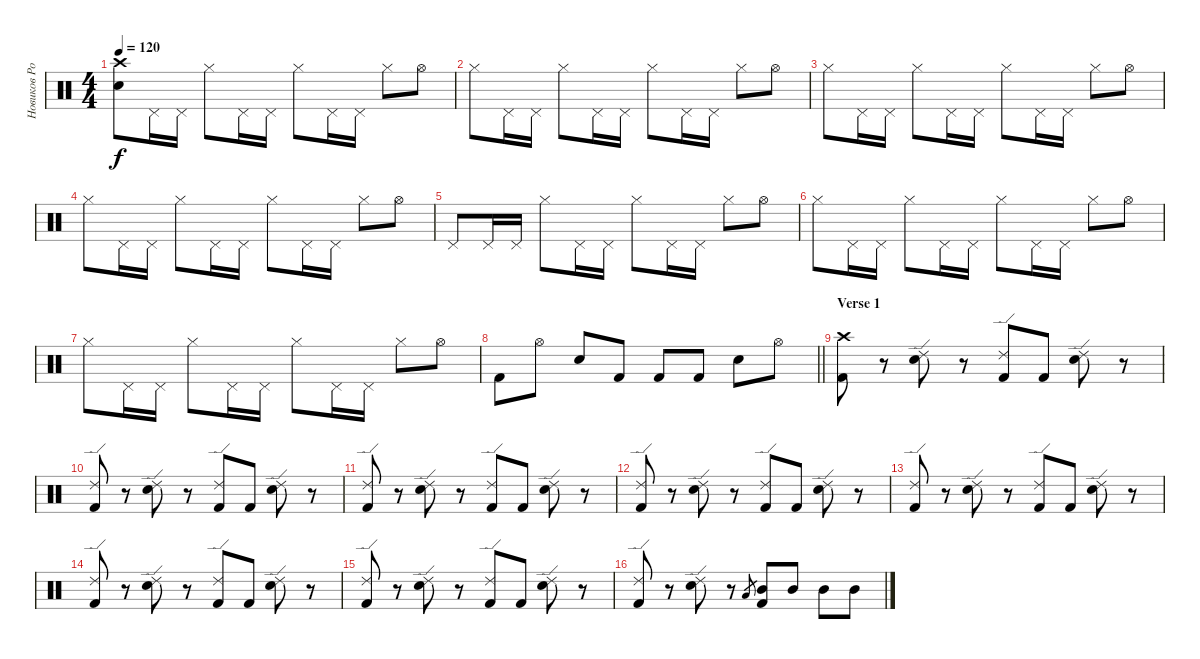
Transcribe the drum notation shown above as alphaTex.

\track ("Новиков Роман  ( Ударные )" "Новиков Ро") {instrument percussion}
\staff {score}
\articulation defaults
\ts (4 4)
\tempo 120
\clef neutral
\ks c
("Snare (hit) 2" "Crash high (hit)").8{dy f} "Pedal Hi-Hat (hit)".16 "Pedal Hi-Hat (hit)".16 "Hi-Hat (closed)".8 "Pedal Hi-Hat (hit)".16 "Pedal Hi-Hat (hit)".16 "Hi-Hat (closed)".8 "Pedal Hi-Hat (hit)".16 "Pedal Hi-Hat (hit)".16 "Hi-Hat (closed)".8 "Hi-Hat (open)".8 |
"Hi-Hat (closed)".8 "Pedal Hi-Hat (hit)".16 "Pedal Hi-Hat (hit)".16 "Hi-Hat (closed)".8 "Pedal Hi-Hat (hit)".16 "Pedal Hi-Hat (hit)".16 "Hi-Hat (closed)".8 "Pedal Hi-Hat (hit)".16 "Pedal Hi-Hat (hit)".16 "Hi-Hat (closed)".8 "Hi-Hat (open)".8 |
"Hi-Hat (closed)".8 "Pedal Hi-Hat (hit)".16 "Pedal Hi-Hat (hit)".16 "Hi-Hat (closed)".8 "Pedal Hi-Hat (hit)".16 "Pedal Hi-Hat (hit)".16 "Hi-Hat (closed)".8 "Pedal Hi-Hat (hit)".16 "Pedal Hi-Hat (hit)".16 "Hi-Hat (closed)".8 "Hi-Hat (open)".8 |
"Hi-Hat (closed)".8 "Pedal Hi-Hat (hit)".16 "Pedal Hi-Hat (hit)".16 "Hi-Hat (closed)".8 "Pedal Hi-Hat (hit)".16 "Pedal Hi-Hat (hit)".16 "Hi-Hat (closed)".8 "Pedal Hi-Hat (hit)".16 "Pedal Hi-Hat (hit)".16 "Hi-Hat (closed)".8 "Hi-Hat (open)".8 |
"Pedal Hi-Hat (hit)".8 "Pedal Hi-Hat (hit)".16 "Pedal Hi-Hat (hit)".16 "Hi-Hat (closed)".8 "Pedal Hi-Hat (hit)".16 "Pedal Hi-Hat (hit)".16 "Hi-Hat (closed)".8 "Pedal Hi-Hat (hit)".16 "Pedal Hi-Hat (hit)".16 "Hi-Hat (closed)".8 "Hi-Hat (open)".8 |
"Hi-Hat (closed)".8 "Pedal Hi-Hat (hit)".16 "Pedal Hi-Hat (hit)".16 "Hi-Hat (closed)".8 "Pedal Hi-Hat (hit)".16 "Pedal Hi-Hat (hit)".16 "Hi-Hat (closed)".8 "Pedal Hi-Hat (hit)".16 "Pedal Hi-Hat (hit)".16 "Hi-Hat (closed)".8 "Hi-Hat (open)".8 |
"Hi-Hat (closed)".8 "Pedal Hi-Hat (hit)".16 "Pedal Hi-Hat (hit)".16 "Hi-Hat (closed)".8 "Pedal Hi-Hat (hit)".16 "Pedal Hi-Hat (hit)".16 "Hi-Hat (closed)".8 "Pedal Hi-Hat (hit)".16 "Pedal Hi-Hat (hit)".16 "Hi-Hat (closed)".8 "Hi-Hat (open)".8 |
\barLineRight lightlight "Kick (hit) 2".8 "Hi-Hat (open)".8 "Snare (hit) 2".8 "Kick (hit) 2".8 "Kick (hit) 2".8 "Kick (hit) 2".8 "Electric Snare (hit)".8 "Hi-Hat (open)".8
|
\section ("" "Verse 1")
("Crash high (hit)" "Kick (hit) 2").8 r.8 ("Ride (edge) 2" "Electric Snare (hit)").8 r.8 ("Ride (edge) 2" "Kick (hit) 2").8 "Kick (hit) 2".8 ("Ride (edge) 2" "Electric Snare (hit)").8 r.8 |
("Ride (edge) 2" "Kick (hit) 2").8 r.8 ("Ride (edge) 2" "Electric Snare (hit)").8 r.8 ("Ride (edge) 2" "Kick (hit) 2").8 "Kick (hit) 2".8 ("Ride (edge) 2" "Electric Snare (hit)").8 r.8 |
("Ride (edge) 2" "Kick (hit) 2").8 r.8 ("Ride (edge) 2" "Electric Snare (hit)").8 r.8 ("Ride (edge) 2" "Kick (hit) 2").8 "Kick (hit) 2".8 ("Ride (edge) 2" "Electric Snare (hit)").8 r.8 |
("Ride (edge) 2" "Kick (hit) 2").8 r.8 ("Ride (edge) 2" "Electric Snare (hit)").8 r.8 ("Ride (edge) 2" "Kick (hit) 2").8 "Kick (hit) 2".8 ("Ride (edge) 2" "Electric Snare (hit)").8 r.8 |
("Ride (edge) 2" "Kick (hit) 2").8 r.8 ("Ride (edge) 2" "Electric Snare (hit)").8 r.8 ("Ride (edge) 2" "Kick (hit) 2").8 "Kick (hit) 2".8 ("Ride (edge) 2" "Electric Snare (hit)").8 r.8 |
("Ride (edge) 2" "Kick (hit) 2").8 r.8 ("Ride (edge) 2" "Electric Snare (hit)").8 r.8 ("Ride (edge) 2" "Kick (hit) 2").8 "Kick (hit) 2".8 ("Ride (edge) 2" "Electric Snare (hit)").8 r.8 |
("Ride (edge) 2" "Kick (hit) 2").8 r.8 ("Ride (edge) 2" "Electric Snare (hit)").8 r.8 ("Ride (edge) 2" "Kick (hit) 2").8 "Kick (hit) 2".8 ("Ride (edge) 2" "Electric Snare (hit)").8 r.8 |
("Ride (edge) 2" "Kick (hit) 2").8 r.8 ("Ride (edge) 2" "Electric Snare (hit)").8 r.8 "Low Tom (hit)"{h}.8{gr} ("Mid Tom (hit)" "Kick (hit) 2").8 "Mid Tom (hit)".8 "Mid Tom (hit)".8 "Mid Tom (hit)".8
